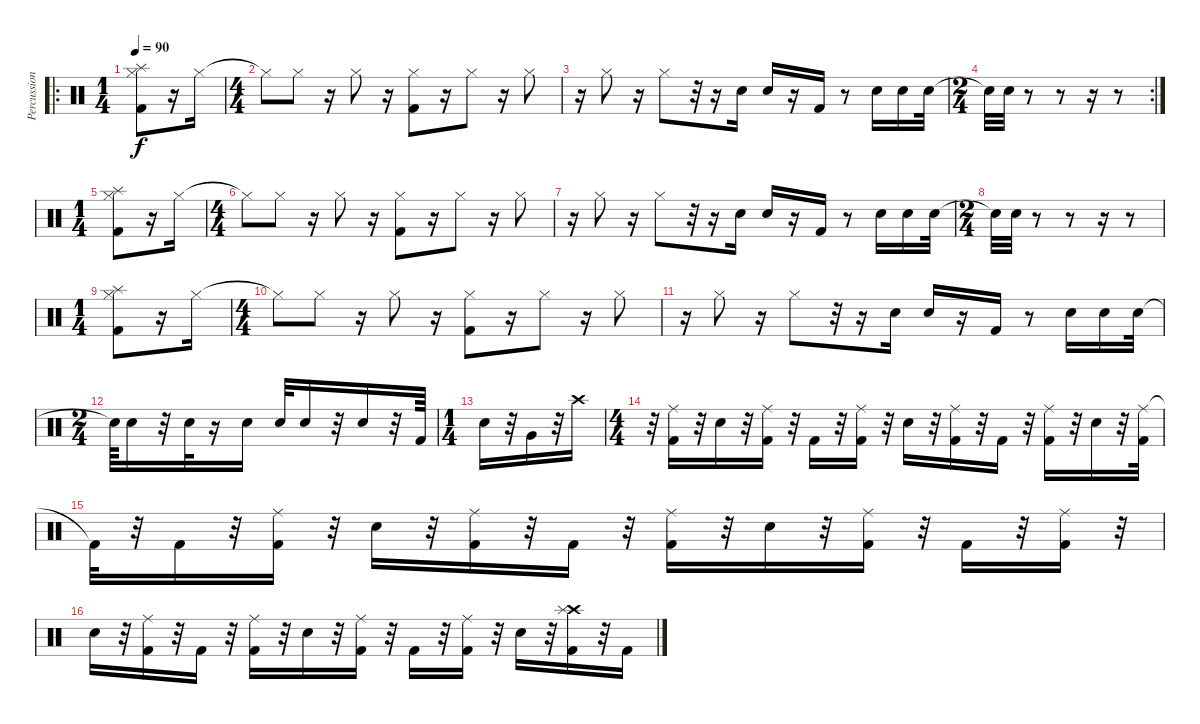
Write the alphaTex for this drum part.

\track ("Percussion" "Percussion") {instrument percussion}
\staff {score}
\articulation defaults
\ro
\ts (1 4)
\tempo 90
\clef neutral
\ks c
("Splash (hit)" "Hi-Hat (closed)" "Kick (hit) 2").8{dy f} r.16 "Hi-Hat (closed)".16 |
\ts (4 4)
"Hi-Hat (closed)"{t}.8 "Hi-Hat (closed)".8 r.16 "Hi-Hat (closed)".8 r.16 ("Hi-Hat (closed)" "Kick (hit) 2").8 r.16 "Hi-Hat (closed)".8 r.16 "Hi-Hat (closed)".8 |
r.16 "Hi-Hat (closed)".8 r.16 "Hi-Hat (closed)".8 r.32 r.16 "Snare (hit) 2".16 "Snare (hit) 2".16 r.16 "Kick (hit) 2".16 r.8 "Electric Snare (hit)".16 "Electric Snare (hit)".16 "Electric Snare (hit)".32 |
\rc 2
\ts (2 4)
"Snare (hit)"{t}.32 "Electric Snare (hit)".32 r.8 r.8 r.16 r.8 |
\ts (1 4)
("Splash (hit)" "Hi-Hat (closed)" "Kick (hit) 2").8 r.16 "Hi-Hat (closed)".16 |
\ts (4 4)
"Hi-Hat (closed)"{t}.8 "Hi-Hat (closed)".8 r.16 "Hi-Hat (closed)".8 r.16 ("Hi-Hat (closed)" "Kick (hit) 2").8 r.16 "Hi-Hat (closed)".8 r.16 "Hi-Hat (closed)".8 |
r.16 "Hi-Hat (closed)".8 r.16 "Hi-Hat (closed)".8 r.32 r.16 "Snare (hit) 2".16 "Snare (hit) 2".16 r.16 "Kick (hit) 2".16 r.8 "Electric Snare (hit)".16 "Electric Snare (hit)".16 "Electric Snare (hit)".32 |
\ts (2 4)
"Snare (hit)"{t}.32 "Electric Snare (hit)".32 r.8 r.8 r.16 r.8 |
\ts (1 4)
("Splash (hit)" "Hi-Hat (closed)" "Kick (hit) 2").8 r.16 "Hi-Hat (closed)".16 |
\ts (4 4)
"Hi-Hat (closed)"{t}.8 "Hi-Hat (closed)".8 r.16 "Hi-Hat (closed)".8 r.16 ("Hi-Hat (closed)" "Kick (hit) 2").8 r.16 "Hi-Hat (closed)".8 r.16 "Hi-Hat (closed)".8 |
r.16 "Hi-Hat (closed)".8 r.16 "Hi-Hat (closed)".8 r.32 r.16 "Snare (hit) 2".16 "Snare (hit) 2".16 r.16 "Kick (hit) 2".16 r.8 "Electric Snare (hit)".16 "Electric Snare (hit)".16 "Electric Snare (hit)".32 |
\ts (2 4)
"Snare (hit)"{t}.64 "Electric Snare (hit)".16 r.32 "Electric Snare (hit)".32 r.16 "Electric Snare (hit)".16 "Electric Snare (hit)".32 "Electric Snare (hit)".16 r.32 "Electric Snare (hit)".16 r.32 "Kick (hit) 2".64 |
\ts (1 4)
"Electric Snare (hit)".16 r.32 "Very Low Tom (hit)".16 r.32 "Crash high (hit)".16 |
\ts (4 4)
r.32 ("Ride (middle)" "Kick (hit) 2").16 r.32 "Electric Snare (hit)".16 r.32 ("Ride (middle)" "Kick (hit) 2").16 r.32 "Kick (hit) 2".16 r.32 ("Ride (middle)" "Kick (hit) 2").16 r.32 "Electric Snare (hit)".16 r.32 ("Ride (middle)" "Kick (hit) 2").16 r.32 "Kick (hit) 2".16 r.32 ("Ride (middle)" "Kick (hit) 2").16 r.32 "Electric Snare (hit)".16 r.32 ("Ride (middle)" "Kick (hit) 2").32 |
"Kick (hit) 2"{t}.32 r.32 "Kick (hit) 2".16 r.32 ("Ride (middle)" "Kick (hit) 2").16 r.32 "Electric Snare (hit)".16 r.32 ("Ride (middle)" "Kick (hit) 2").16 r.32 "Kick (hit) 2".16 r.32 ("Ride (middle)" "Kick (hit) 2").16 r.32 "Electric Snare (hit)".16 r.32 ("Ride (middle)" "Kick (hit) 2").16 r.32 "Kick (hit) 2".16 r.32 ("Ride (middle)" "Kick (hit) 2").16 r.32 |
"Electric Snare (hit)".16 r.32 ("Ride (middle)" "Kick (hit) 2").16 r.32 "Kick (hit) 2".16 r.32 ("Ride (middle)" "Kick (hit) 2").16 r.32 "Electric Snare (hit)".16 r.32 ("Ride (middle)" "Kick (hit) 2").16 r.32 "Kick (hit) 2".16 r.32 ("Ride (middle)" "Kick (hit) 2").16 r.32 "Electric Snare (hit)".16 r.32 ("Crash high (hit)" "Splash (hit)" "Kick (hit) 2").16 r.32 "Kick (hit) 2".16
